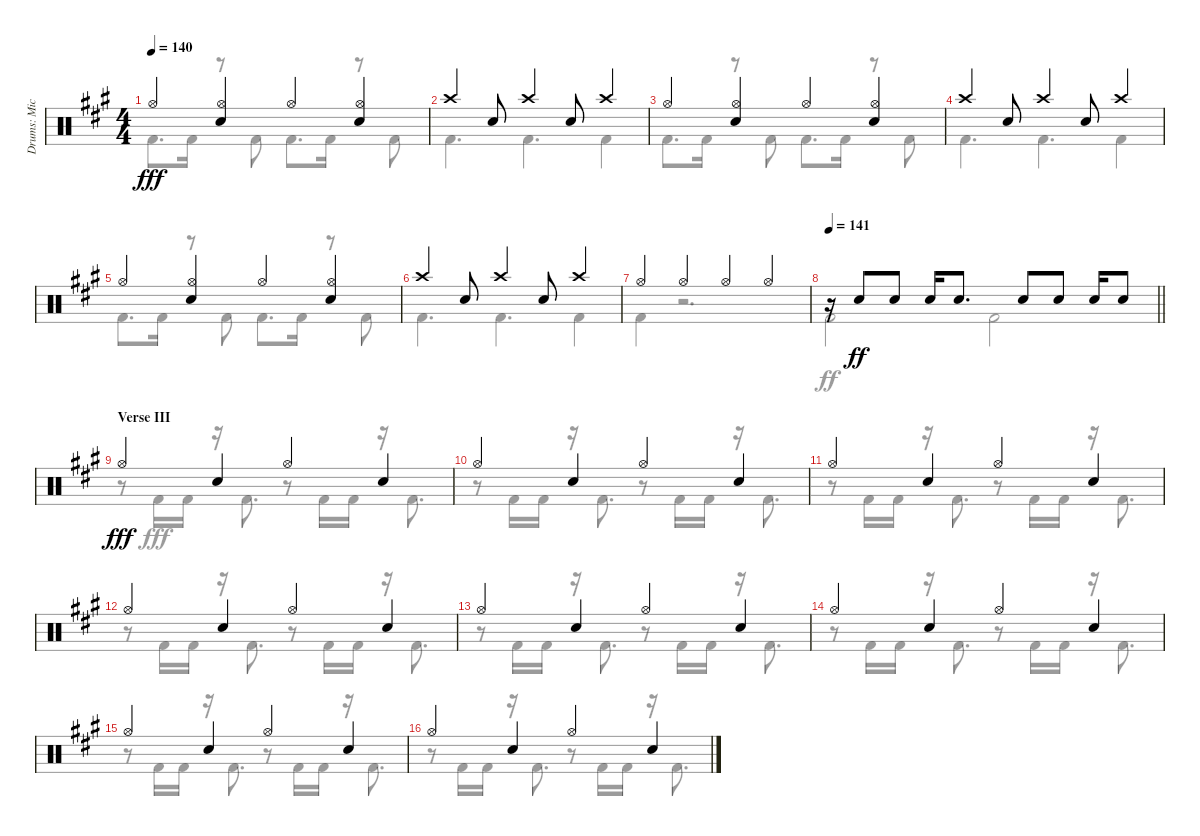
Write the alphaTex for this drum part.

\track ("Drums: Mick" "Drums: Mic") {instrument percussion}
\staff {score}
\articulation defaults
\voice
\ts (4 4)
\tempo 140
\clef neutral
\ks a "Hi-Hat (open)".4{dy fff}
("Hi-Hat (open)" "Snare (hit) 2").4 "Hi-Hat (open)".4 ("Hi-Hat (open)" "Snare (hit) 2").4 |
"Crash high (hit)".4 "Snare (hit) 2".8 "Crash high (hit)".4 "Snare (hit) 2".8 "Crash high (hit)".4 |
"Hi-Hat (open)".4 ("Hi-Hat (open)" "Snare (hit) 2").4 "Hi-Hat (open)".4 ("Hi-Hat (open)" "Snare (hit) 2").4 |
"Crash high (hit)".4 "Snare (hit) 2".8 "Crash high (hit)".4 "Snare (hit) 2".8 "Crash high (hit)".4 |
"Hi-Hat (open)".4 ("Hi-Hat (open)" "Snare (hit) 2").4 "Hi-Hat (open)".4 ("Hi-Hat (open)" "Snare (hit) 2").4 |
"Crash high (hit)".4 "Snare (hit) 2".8 "Crash high (hit)".4 "Snare (hit) 2".8 "Crash high (hit)".4 |
"Hi-Hat (open)".4 "Hi-Hat (open)".4 "Hi-Hat (open)".4 "Hi-Hat (open)".4 |
\tempo 141
\barLineRight lightlight
r.16 "Snare (hit) 2".8{dy ff} "Snare (hit) 2".8 "Snare (hit) 2".16 "Snare (hit) 2".8{d} "Snare (hit) 2".8 "Snare (hit) 2".8 "Snare (hit) 2".16 "Snare (hit) 2".8 |
\section ("" "Verse III")
"Hi-Hat (open)".4{dy fff} "Snare (hit) 2".4 "Hi-Hat (open)".4 "Snare (hit) 2".4 |
"Hi-Hat (open)".4 "Snare (hit) 2".4 "Hi-Hat (open)".4 "Snare (hit) 2".4 |
"Hi-Hat (open)".4 "Snare (hit) 2".4 "Hi-Hat (open)".4 "Snare (hit) 2".4 |
"Hi-Hat (open)".4 "Snare (hit) 2".4 "Hi-Hat (open)".4 "Snare (hit) 2".4 |
"Hi-Hat (open)".4 "Snare (hit) 2".4 "Hi-Hat (open)".4 "Snare (hit) 2".4 |
"Hi-Hat (open)".4 "Snare (hit) 2".4 "Hi-Hat (open)".4 "Snare (hit) 2".4 |
"Hi-Hat (open)".4 "Snare (hit) 2".4 "Hi-Hat (open)".4 "Snare (hit) 2".4 |
"Hi-Hat (open)".4 "Snare (hit) 2".4 "Hi-Hat (open)".4 "Snare (hit) 2".4
\voice
\clef neutral
\ottava regular
\simile none
\ks a "Kick (hit) 2".8{d dy fff} "Kick (hit) 2".16
r.8 "Kick (hit) 2".8 "Kick (hit) 2".8{d} "Kick (hit) 2".16 r.8 "Kick (hit) 2".8 |
"Kick (hit) 2".4{d} "Kick (hit) 2".4{d} "Kick (hit) 2".4 |
"Kick (hit) 2".8{d} "Kick (hit) 2".16 r.8 "Kick (hit) 2".8 "Kick (hit) 2".8{d} "Kick (hit) 2".16 r.8 "Kick (hit) 2".8 |
"Kick (hit) 2".4{d} "Kick (hit) 2".4{d} "Kick (hit) 2".4 |
"Kick (hit) 2".8{d} "Kick (hit) 2".16 r.8 "Kick (hit) 2".8 "Kick (hit) 2".8{d} "Kick (hit) 2".16 r.8 "Kick (hit) 2".8 |
"Kick (hit) 2".4{d} "Kick (hit) 2".4{d} "Kick (hit) 2".4 |
"Kick (hit) 2".4 r.2{d} |
\barLineRight lightlight "Kick (hit) 2".2{dy ff} "Kick (hit) 2".2
|
r.8 "Kick (hit) 2".16{dy fff} "Kick (hit) 2".16 r.16 "Kick (hit) 2".8{d} r.8 "Kick (hit) 2".16 "Kick (hit) 2".16 r.16 "Kick (hit) 2".8{d} |
r.8 "Kick (hit) 2".16 "Kick (hit) 2".16 r.16 "Kick (hit) 2".8{d} r.8 "Kick (hit) 2".16 "Kick (hit) 2".16 r.16 "Kick (hit) 2".8{d} |
r.8 "Kick (hit) 2".16 "Kick (hit) 2".16 r.16 "Kick (hit) 2".8{d} r.8 "Kick (hit) 2".16 "Kick (hit) 2".16 r.16 "Kick (hit) 2".8{d} |
r.8 "Kick (hit) 2".16 "Kick (hit) 2".16 r.16 "Kick (hit) 2".8{d} r.8 "Kick (hit) 2".16 "Kick (hit) 2".16 r.16 "Kick (hit) 2".8{d} |
r.8 "Kick (hit) 2".16 "Kick (hit) 2".16 r.16 "Kick (hit) 2".8{d} r.8 "Kick (hit) 2".16 "Kick (hit) 2".16 r.16 "Kick (hit) 2".8{d} |
r.8 "Kick (hit) 2".16 "Kick (hit) 2".16 r.16 "Kick (hit) 2".8{d} r.8 "Kick (hit) 2".16 "Kick (hit) 2".16 r.16 "Kick (hit) 2".8{d} |
r.8 "Kick (hit) 2".16 "Kick (hit) 2".16 r.16 "Kick (hit) 2".8{d} r.8 "Kick (hit) 2".16 "Kick (hit) 2".16 r.16 "Kick (hit) 2".8{d} |
r.8 "Kick (hit) 2".16 "Kick (hit) 2".16 r.16 "Kick (hit) 2".8{d} r.8 "Kick (hit) 2".16 "Kick (hit) 2".16 r.16 "Kick (hit) 2".8{d}
